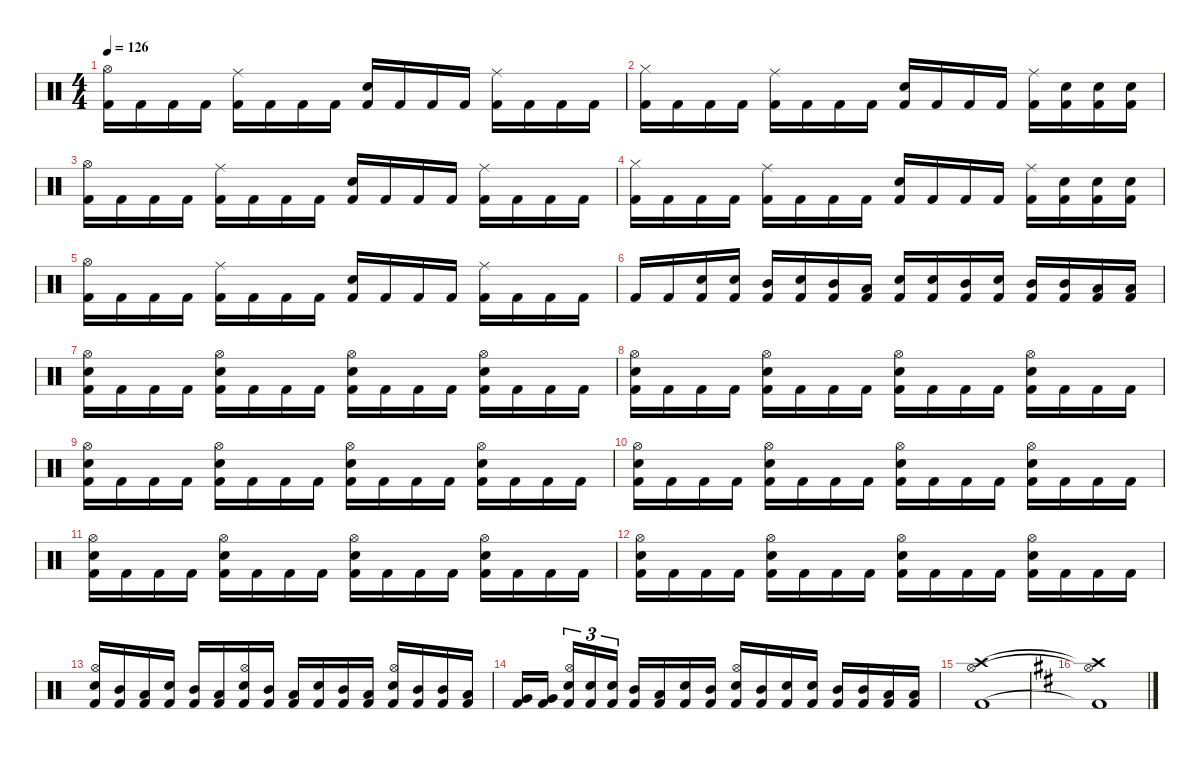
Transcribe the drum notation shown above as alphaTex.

\defaultSystemsLayout 4
\hideDynamics
\bracketExtendMode nobrackets
\singleTrackTrackNamePolicy hidden
\multiTrackTrackNamePolicy hidden
\firstSystemTrackNameMode fullname
\firstSystemTrackNameOrientation horizontal
\otherSystemsTrackNameOrientation horizontal
\track ("Drums" "drm.") {instrument percussion}
\staff {score}
\articulation defaults
\ts (4 4)
\tempo 126
\clef neutral
\ks c
("Hi-Hat (open)" "Kick (hit) 2").16{dy f beam Down} "Kick (hit) 2".16{beam Down} "Kick (hit) 2".16{beam Down} "Kick (hit) 2".16{beam Down} ("Ride (middle)" "Kick (hit) 2").16{beam Down} "Kick (hit) 2".16{beam Down} "Kick (hit) 2".16{beam Down} "Kick (hit) 2".16{beam Down} ("Snare (hit) 2" "Kick (hit) 2").16{beam Up} "Kick (hit) 2".16{beam Up} "Kick (hit) 2".16{beam Up} "Kick (hit) 2".16{beam Up} ("Ride (middle)" "Kick (hit) 2").16{beam Down} "Kick (hit) 2".16{beam Down} "Kick (hit) 2".16{beam Down} "Kick (hit) 2".16{beam Down} |
("Hi-Hat (closed)" "Kick (hit) 2").16{beam Down} "Kick (hit) 2".16{beam Down} "Kick (hit) 2".16{beam Down} "Kick (hit) 2".16{beam Down} ("Ride (middle)" "Kick (hit) 2").16{beam Down} "Kick (hit) 2".16{beam Down} "Kick (hit) 2".16{beam Down} "Kick (hit) 2".16{beam Down} ("Snare (hit) 2" "Kick (hit) 2").16{beam Up} "Kick (hit) 2".16{beam Up} "Kick (hit) 2".16{beam Up} "Kick (hit) 2".16{beam Up} ("Ride (middle)" "Kick (hit) 2").16{beam Down} ("Snare (hit) 2" "Kick (hit) 2").16{beam Down} ("Snare (hit) 2" "Kick (hit) 2").16{beam Down} ("Snare (hit) 2" "Kick (hit) 2").16{beam Down} |
("Hi-Hat (open)" "Kick (hit) 2").16{beam Down} "Kick (hit) 2".16{beam Down} "Kick (hit) 2".16{beam Down} "Kick (hit) 2".16{beam Down} ("Ride (middle)" "Kick (hit) 2").16{beam Down} "Kick (hit) 2".16{beam Down} "Kick (hit) 2".16{beam Down} "Kick (hit) 2".16{beam Down} ("Snare (hit) 2" "Kick (hit) 2").16{beam Up} "Kick (hit) 2".16{beam Up} "Kick (hit) 2".16{beam Up} "Kick (hit) 2".16{beam Up} ("Ride (middle)" "Kick (hit) 2").16{beam Down} "Kick (hit) 2".16{beam Down} "Kick (hit) 2".16{beam Down} "Kick (hit) 2".16{beam Down} |
("Hi-Hat (closed)" "Kick (hit) 2").16{beam Down} "Kick (hit) 2".16{beam Down} "Kick (hit) 2".16{beam Down} "Kick (hit) 2".16{beam Down} ("Ride (middle)" "Kick (hit) 2").16{beam Down} "Kick (hit) 2".16{beam Down} "Kick (hit) 2".16{beam Down} "Kick (hit) 2".16{beam Down} ("Snare (hit) 2" "Kick (hit) 2").16{beam Up} "Kick (hit) 2".16{beam Up} "Kick (hit) 2".16{beam Up} "Kick (hit) 2".16{beam Up} ("Ride (middle)" "Kick (hit) 2").16{beam Down} ("Snare (hit) 2" "Kick (hit) 2").16{beam Down} ("Snare (hit) 2" "Kick (hit) 2").16{beam Down} ("Snare (hit) 2" "Kick (hit) 2").16{beam Down} |
("Hi-Hat (open)" "Kick (hit) 2").16{beam Down} "Kick (hit) 2".16{beam Down} "Kick (hit) 2".16{beam Down} "Kick (hit) 2".16{beam Down} ("Ride (middle)" "Kick (hit) 2").16{beam Down} "Kick (hit) 2".16{beam Down} "Kick (hit) 2".16{beam Down} "Kick (hit) 2".16{beam Down} ("Snare (hit) 2" "Kick (hit) 2").16{beam Up} "Kick (hit) 2".16{beam Up} "Kick (hit) 2".16{beam Up} "Kick (hit) 2".16{beam Up} ("Ride (middle)" "Kick (hit) 2").16{beam Down} "Kick (hit) 2".16{beam Down} "Kick (hit) 2".16{beam Down} "Kick (hit) 2".16{beam Down} |
"Kick (hit) 2".16{beam Up} "Kick (hit) 2".16{beam Up} ("Snare (hit) 2" "Kick (hit) 2").16{beam Up} ("Snare (hit) 2" "Kick (hit) 2").16{beam Up} ("Mid Tom (hit)" "Kick (hit) 2").16{beam Up} ("Snare (hit) 2" "Kick (hit) 2").16{beam Up} ("Mid Tom (hit)" "Kick (hit) 2").16{beam Up} ("Low Tom (hit)" "Kick (hit) 2").16{beam Up} ("Snare (hit) 2" "Kick (hit) 2").16{beam Up} ("Snare (hit) 2" "Kick (hit) 2").16{beam Up} ("Mid Tom (hit)" "Kick (hit) 2").16{beam Up} ("Snare (hit) 2" "Kick (hit) 2").16{beam Up} ("Mid Tom (hit)" "Kick (hit) 2").16{beam Up} ("Mid Tom (hit)" "Kick (hit) 2").16{beam Up} ("Low Tom (hit)" "Kick (hit) 2").16{beam Up} ("Low Floor Tom (hit)" "Kick (hit) 2").16{beam Up} |
("Snare (hit) 2" "Hi-Hat (open)" "Kick (hit) 2").16{beam Down} "Kick (hit) 2".16{beam Down} "Kick (hit) 2".16{beam Down} "Kick (hit) 2".16{beam Down} ("Snare (hit) 2" "Hi-Hat (open)" "Kick (hit) 2").16{beam Down} "Kick (hit) 2".16{beam Down} "Kick (hit) 2".16{beam Down} "Kick (hit) 2".16{beam Down} ("Snare (hit) 2" "Hi-Hat (open)" "Kick (hit) 2").16{beam Down} "Kick (hit) 2".16{beam Down} "Kick (hit) 2".16{beam Down} "Kick (hit) 2".16{beam Down} ("Snare (hit) 2" "Hi-Hat (open)" "Kick (hit) 2").16{beam Down} "Kick (hit) 2".16{beam Down} "Kick (hit) 2".16{beam Down} "Kick (hit) 2".16{beam Down} |
("Snare (hit) 2" "Hi-Hat (open)" "Kick (hit) 2").16{beam Down} "Kick (hit) 2".16{beam Down} "Kick (hit) 2".16{beam Down} "Kick (hit) 2".16{beam Down} ("Snare (hit) 2" "Hi-Hat (open)" "Kick (hit) 2").16{beam Down} "Kick (hit) 2".16{beam Down} "Kick (hit) 2".16{beam Down} "Kick (hit) 2".16{beam Down} ("Snare (hit) 2" "Hi-Hat (open)" "Kick (hit) 2").16{beam Down} "Kick (hit) 2".16{beam Down} "Kick (hit) 2".16{beam Down} "Kick (hit) 2".16{beam Down} ("Snare (hit) 2" "Hi-Hat (open)" "Kick (hit) 2").16{beam Down} "Kick (hit) 2".16{beam Down} "Kick (hit) 2".16{beam Down} "Kick (hit) 2".16{beam Down} |
("Snare (hit) 2" "Hi-Hat (open)" "Kick (hit) 2").16{beam Down} "Kick (hit) 2".16{beam Down} "Kick (hit) 2".16{beam Down} "Kick (hit) 2".16{beam Down} ("Snare (hit) 2" "Hi-Hat (open)" "Kick (hit) 2").16{beam Down} "Kick (hit) 2".16{beam Down} "Kick (hit) 2".16{beam Down} "Kick (hit) 2".16{beam Down} ("Snare (hit) 2" "Hi-Hat (open)" "Kick (hit) 2").16{beam Down} "Kick (hit) 2".16{beam Down} "Kick (hit) 2".16{beam Down} "Kick (hit) 2".16{beam Down} ("Snare (hit) 2" "Hi-Hat (open)" "Kick (hit) 2").16{beam Down} "Kick (hit) 2".16{beam Down} "Kick (hit) 2".16{beam Down} "Kick (hit) 2".16{beam Down} |
("Snare (hit) 2" "Hi-Hat (open)" "Kick (hit) 2").16{beam Down} "Kick (hit) 2".16{beam Down} "Kick (hit) 2".16{beam Down} "Kick (hit) 2".16{beam Down} ("Snare (hit) 2" "Hi-Hat (open)" "Kick (hit) 2").16{beam Down} "Kick (hit) 2".16{beam Down} "Kick (hit) 2".16{beam Down} "Kick (hit) 2".16{beam Down} ("Snare (hit) 2" "Hi-Hat (open)" "Kick (hit) 2").16{beam Down} "Kick (hit) 2".16{beam Down} "Kick (hit) 2".16{beam Down} "Kick (hit) 2".16{beam Down} ("Snare (hit) 2" "Hi-Hat (open)" "Kick (hit) 2").16{beam Down} "Kick (hit) 2".16{beam Down} "Kick (hit) 2".16{beam Down} "Kick (hit) 2".16{beam Down} |
("Snare (hit) 2" "Hi-Hat (open)" "Kick (hit) 2").16{beam Down} "Kick (hit) 2".16{beam Down} "Kick (hit) 2".16{beam Down} "Kick (hit) 2".16{beam Down} ("Snare (hit) 2" "Hi-Hat (open)" "Kick (hit) 2").16{beam Down} "Kick (hit) 2".16{beam Down} "Kick (hit) 2".16{beam Down} "Kick (hit) 2".16{beam Down} ("Snare (hit) 2" "Hi-Hat (open)" "Kick (hit) 2").16{beam Down} "Kick (hit) 2".16{beam Down} "Kick (hit) 2".16{beam Down} "Kick (hit) 2".16{beam Down} ("Snare (hit) 2" "Hi-Hat (open)" "Kick (hit) 2").16{beam Down} "Kick (hit) 2".16{beam Down} "Kick (hit) 2".16{beam Down} "Kick (hit) 2".16{beam Down} |
("Snare (hit) 2" "Hi-Hat (open)" "Kick (hit) 2").16{beam Down} "Kick (hit) 2".16{beam Down} "Kick (hit) 2".16{beam Down} "Kick (hit) 2".16{beam Down} ("Snare (hit) 2" "Hi-Hat (open)" "Kick (hit) 2").16{beam Down} "Kick (hit) 2".16{beam Down} "Kick (hit) 2".16{beam Down} "Kick (hit) 2".16{beam Down} ("Snare (hit) 2" "Hi-Hat (open)" "Kick (hit) 2").16{beam Down} "Kick (hit) 2".16{beam Down} "Kick (hit) 2".16{beam Down} "Kick (hit) 2".16{beam Down} ("Snare (hit) 2" "Hi-Hat (open)" "Kick (hit) 2").16{beam Down} "Kick (hit) 2".16{beam Down} "Kick (hit) 2".16{beam Down} "Kick (hit) 2".16{beam Down} |
("Snare (hit) 2" "Hi-Hat (open)" "Kick (hit) 2").16{beam Up} ("Mid Tom (hit)" "Kick (hit) 2").16{beam Up} ("Low Tom (hit)" "Kick (hit) 2").16{beam Up} ("Snare (hit) 2" "Kick (hit) 2").16{beam Up} ("Mid Tom (hit)" "Kick (hit) 2").16{beam Up} ("Low Tom (hit)" "Kick (hit) 2").16{beam Up} ("Snare (hit) 2" "Hi-Hat (open)" "Kick (hit) 2").16{beam Up} ("Mid Tom (hit)" "Kick (hit) 2").16{beam Up} ("Low Tom (hit)" "Kick (hit) 2").16{beam Up} ("Snare (hit) 2" "Kick (hit) 2").16{beam Up} ("Mid Tom (hit)" "Kick (hit) 2").16{beam Up} ("Low Tom (hit)" "Kick (hit) 2").16{beam Up} ("Snare (hit) 2" "Hi-Hat (open)" "Kick (hit) 2").16{beam Up} ("Mid Tom (hit)" "Kick (hit) 2").16{beam Up} ("Mid Tom (hit)" "Kick (hit) 2").16{beam Up} ("Low Tom (hit)" "Kick (hit) 2").16{beam Up} |
("Very Low Tom (hit)" "Kick (hit) 2").16{beam Up} ("Very Low Tom (hit)" "Kick (hit) 2").16{beam Up} ("Snare (hit) 2" "Hi-Hat (open)" "Kick (hit) 2").16{tu (3 2) beam Up} ("Snare (hit) 2" "Kick (hit) 2").16{tu (3 2) beam Up} ("Snare (hit) 2" "Kick (hit) 2").16{tu (3 2) beam Up} ("Mid Tom (hit)" "Kick (hit) 2").16{beam Up} ("Low Tom (hit)" "Kick (hit) 2").16{beam Up} ("Snare (hit) 2" "Kick (hit) 2").16{beam Up} ("Mid Tom (hit)" "Kick (hit) 2").16{beam Up} ("Snare (hit) 2" "Hi-Hat (open)" "Kick (hit) 2").16{beam Up} ("Mid Tom (hit)" "Kick (hit) 2").16{beam Up} ("Snare (hit) 2" "Kick (hit) 2").16{beam Up} ("Snare (hit) 2" "Kick (hit) 2").16{beam Up} ("Mid Tom (hit)" "Kick (hit) 2").16{beam Up} ("Mid Tom (hit)" "Kick (hit) 2").16{beam Up} ("Low Tom (hit)" "Kick (hit) 2").16{beam Up} ("Low Tom (hit)" "Kick (hit) 2").16{beam Up} |
("Crash high (hit)" "Hi-Hat (open)" "Kick (hit) 2").1{beam Down} |
\ks d
("Crash high (hit)"{t acc forcenatural} "Hi-Hat (open)"{t acc forcenatural} "Kick (hit) 2"{t acc forcenatural}).1{beam Down}
